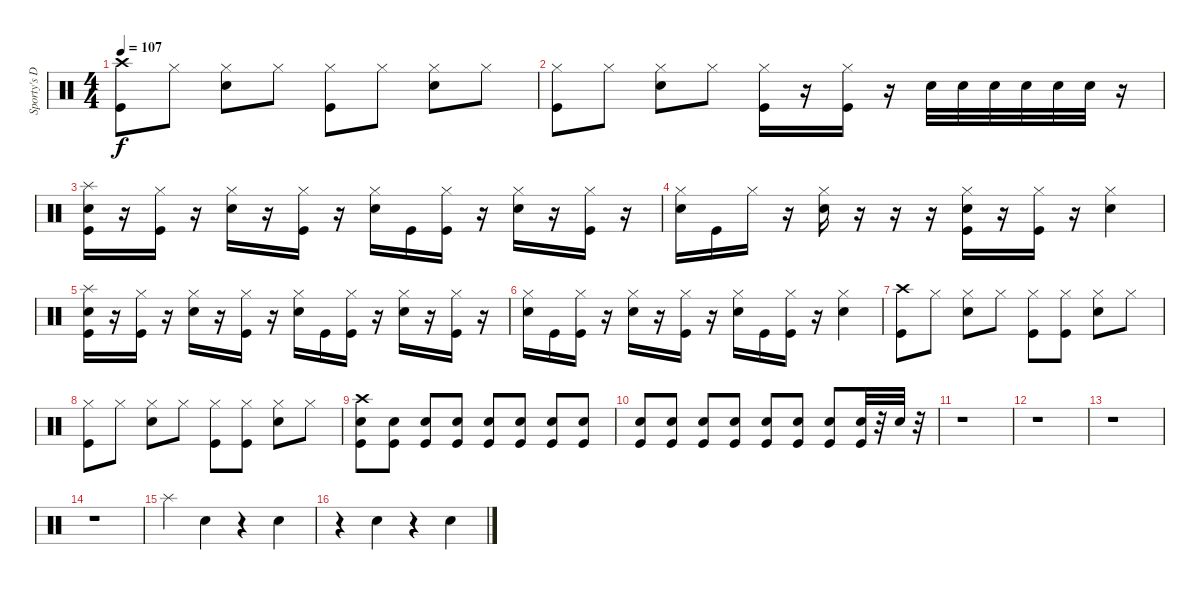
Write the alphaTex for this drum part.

\track ("Sporty's Drums" "Sporty's D") {instrument percussion}
\staff {score}
\articulation defaults
\ts (4 4)
\tempo 107
\clef neutral
\ks c
("Crash high (hit)" "Kick (hit)").8{dy f} "Hi-Hat (closed)".8 ("Hi-Hat (closed)" "Electric Snare (hit)").8 "Hi-Hat (closed)".8 ("Hi-Hat (closed)" "Kick (hit)").8 "Hi-Hat (closed)".8 ("Hi-Hat (closed)" "Electric Snare (hit)").8 "Hi-Hat (closed)".8 |
("Hi-Hat (closed)" "Kick (hit)").8 "Hi-Hat (closed)".8 ("Hi-Hat (closed)" "Electric Snare (hit)").8 "Hi-Hat (closed)".8 ("Hi-Hat (closed)" "Kick (hit)").16 r.16 ("Hi-Hat (closed)" "Kick (hit)").16 r.16 "Electric Snare (hit)".32 "Electric Snare (hit)".32 "Electric Snare (hit)".32 "Electric Snare (hit)".32 "Electric Snare (hit)".32 "Electric Snare (hit)".32 r.16 |
("Electric Snare (hit)" "Splash (hit)" "Kick (hit)").16 r.16 ("Hi-Hat (closed)" "Kick (hit)").16 r.16 ("Hi-Hat (closed)" "Electric Snare (hit)").16 r.16 ("Hi-Hat (closed)" "Kick (hit)").16 r.16 ("Electric Snare (hit)" "Hi-Hat (closed)").16 "Kick (hit)".16 ("Hi-Hat (closed)" "Kick (hit)").16 r.16 ("Hi-Hat (closed)" "Electric Snare (hit)").16 r.16 ("Hi-Hat (closed)" "Kick (hit)").16 r.16 |
("Electric Snare (hit)" "Hi-Hat (closed)").16 "Kick (hit)".16 "Hi-Hat (closed)".16 r.16 ("Hi-Hat (closed)" "Electric Snare (hit)").16 r.16 r.16 r.16 ("Electric Snare (hit)" "Hi-Hat (closed)" "Kick (hit)").16 r.16 ("Hi-Hat (closed)" "Kick (hit)").16 r.16 ("Hi-Hat (closed)" "Electric Snare (hit)").4 |
("Electric Snare (hit)" "Splash (hit)" "Kick (hit)").16 r.16 ("Hi-Hat (closed)" "Kick (hit)").16 r.16 ("Hi-Hat (closed)" "Electric Snare (hit)").16 r.16 ("Hi-Hat (closed)" "Kick (hit)").16 r.16 ("Electric Snare (hit)" "Hi-Hat (closed)").16 "Kick (hit)".16 ("Hi-Hat (closed)" "Kick (hit)").16 r.16 ("Hi-Hat (closed)" "Electric Snare (hit)").16 r.16 ("Hi-Hat (closed)" "Kick (hit)").16 r.16 |
("Electric Snare (hit)" "Hi-Hat (closed)").16 "Kick (hit)".16 ("Hi-Hat (closed)" "Kick (hit)").16 r.16 ("Hi-Hat (closed)" "Electric Snare (hit)").16 r.16 ("Hi-Hat (closed)" "Kick (hit)").16 r.16 ("Electric Snare (hit)" "Hi-Hat (closed)").16 "Kick (hit)".16 ("Hi-Hat (closed)" "Kick (hit)").16 r.16 ("Hi-Hat (closed)" "Electric Snare (hit)").4 |
("Crash high (hit)" "Kick (hit)").8 "Hi-Hat (closed)".8 ("Hi-Hat (closed)" "Electric Snare (hit)").8 "Hi-Hat (closed)".8 ("Hi-Hat (closed)" "Kick (hit)").8 ("Hi-Hat (closed)" "Kick (hit)").8 ("Hi-Hat (closed)" "Electric Snare (hit)").8 "Hi-Hat (closed)".8 |
("Hi-Hat (closed)" "Kick (hit)").8 "Hi-Hat (closed)".8 ("Hi-Hat (closed)" "Electric Snare (hit)").8 "Hi-Hat (closed)".8 ("Hi-Hat (closed)" "Kick (hit)").8 ("Hi-Hat (closed)" "Kick (hit)").8 ("Hi-Hat (closed)" "Electric Snare (hit)").8 "Hi-Hat (closed)".8 |
("Crash high (hit)" "Kick (hit)" "Electric Snare (hit)").8 ("Kick (hit)" "Electric Snare (hit)").8 ("Kick (hit)" "Electric Snare (hit)").8 ("Kick (hit)" "Electric Snare (hit)").8 ("Kick (hit)" "Electric Snare (hit)").8 ("Kick (hit)" "Electric Snare (hit)").8 ("Kick (hit)" "Electric Snare (hit)").8 ("Kick (hit)" "Electric Snare (hit)").8 |
("Kick (hit)" "Electric Snare (hit)").8 ("Kick (hit)" "Electric Snare (hit)").8 ("Kick (hit)" "Electric Snare (hit)").8 ("Kick (hit)" "Electric Snare (hit)").8 ("Kick (hit)" "Electric Snare (hit)").8 ("Kick (hit)" "Electric Snare (hit)").8 ("Kick (hit)" "Electric Snare (hit)").8 ("Kick (hit)" "Electric Snare (hit)").32 r.32 "Electric Snare (hit)".32 r.32 |
r.1 |
r.1 |
r.1 |
r.1 |
"Splash (hit)".4 "Electric Snare (hit)".4 r.4 "Electric Snare (hit)".4 |
r.4 "Electric Snare (hit)".4 r.4 "Electric Snare (hit)".4
